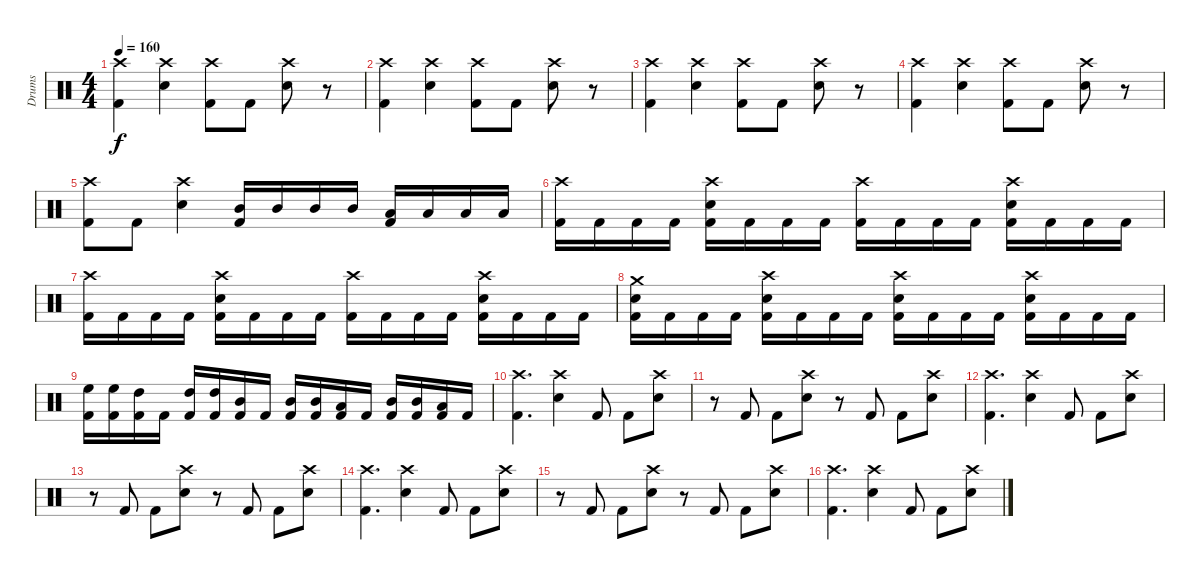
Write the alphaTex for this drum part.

\track ("Drums" "Drums") {instrument percussion}
\staff {score}
\articulation defaults
\ts (4 4)
\tempo 160
\clef neutral
\ks c
("Crash high (hit)" "Kick (hit) 2").4{dy f} ("Crash high (hit)" "Electric Snare (hit)").4 ("Crash high (hit)" "Kick (hit) 2").8 "Kick (hit) 2".8 ("Crash high (hit)" "Electric Snare (hit)").8 r.8 |
("Crash high (hit)" "Kick (hit) 2").4 ("Crash high (hit)" "Electric Snare (hit)").4 ("Crash high (hit)" "Kick (hit) 2").8 "Kick (hit) 2".8 ("Crash high (hit)" "Electric Snare (hit)").8 r.8 |
("Crash high (hit)" "Kick (hit) 2").4 ("Crash high (hit)" "Electric Snare (hit)").4 ("Crash high (hit)" "Kick (hit) 2").8 "Kick (hit) 2".8 ("Crash high (hit)" "Electric Snare (hit)").8 r.8 |
("Crash high (hit)" "Kick (hit) 2").4 ("Crash high (hit)" "Electric Snare (hit)").4 ("Crash high (hit)" "Kick (hit) 2").8 "Kick (hit) 2".8 ("Crash high (hit)" "Electric Snare (hit)").8 r.8 |
("Crash high (hit)" "Kick (hit) 2").8 "Kick (hit) 2".8 ("Crash high (hit)" "Electric Snare (hit)").4 ("Mid Tom (hit)" "Kick (hit) 2").16 "Mid Tom (hit)".16 "Mid Tom (hit)".16 "Mid Tom (hit)".16 ("Low Tom (hit)" "Kick (hit) 2").16 "Low Tom (hit)".16 "Low Tom (hit)".16 "Low Tom (hit)".16 |
("Crash high (hit)" "Kick (hit) 2").16 "Kick (hit) 2".16 "Kick (hit) 2".16 "Kick (hit) 2".16 ("Crash high (hit)" "Electric Snare (hit)" "Kick (hit) 2").16 "Kick (hit) 2".16 "Kick (hit) 2".16 "Kick (hit) 2".16 ("Crash high (hit)" "Kick (hit) 2").16 "Kick (hit) 2".16 "Kick (hit) 2".16 "Kick (hit) 2".16 ("Crash high (hit)" "Electric Snare (hit)" "Kick (hit) 2").16 "Kick (hit) 2".16 "Kick (hit) 2".16 "Kick (hit) 2".16 |
("Crash high (hit)" "Kick (hit) 2").16 "Kick (hit) 2".16 "Kick (hit) 2".16 "Kick (hit) 2".16 ("Crash high (hit)" "Electric Snare (hit)" "Kick (hit) 2").16 "Kick (hit) 2".16 "Kick (hit) 2".16 "Kick (hit) 2".16 ("Crash high (hit)" "Kick (hit) 2").16 "Kick (hit) 2".16 "Kick (hit) 2".16 "Kick (hit) 2".16 ("Crash high (hit)" "Electric Snare (hit)" "Kick (hit) 2").16 "Kick (hit) 2".16 "Kick (hit) 2".16 "Kick (hit) 2".16 |
("Crash medium (hit)" "Electric Snare (hit)" "Kick (hit) 2").16 "Kick (hit) 2".16 "Kick (hit) 2".16 "Kick (hit) 2".16 ("Crash high (hit)" "Electric Snare (hit)" "Kick (hit) 2").16 "Kick (hit) 2".16 "Kick (hit) 2".16 "Kick (hit) 2".16 ("Crash high (hit)" "Electric Snare (hit)" "Kick (hit) 2").16 "Kick (hit) 2".16 "Kick (hit) 2".16 "Kick (hit) 2".16 ("Crash high (hit)" "Electric Snare (hit)" "Kick (hit) 2").16 "Kick (hit) 2".16 "Kick (hit) 2".16 "Kick (hit) 2".16 |
("High Floor Tom (hit)" "Kick (hit) 2").16 ("High Floor Tom (hit)" "Kick (hit) 2").16 ("High Tom (hit)" "Kick (hit) 2").16 "Kick (hit) 2".16 ("High Tom (hit)" "Kick (hit) 2").16 ("High Tom (hit)" "Kick (hit) 2").16 ("Mid Tom (hit)" "Kick (hit) 2").16 "Kick (hit) 2".16 ("Mid Tom (hit)" "Kick (hit) 2").16 ("Mid Tom (hit)" "Kick (hit) 2").16 ("Low Tom (hit)" "Kick (hit) 2").16 "Kick (hit) 2".16 ("Mid Tom (hit)" "Kick (hit) 2").16 ("Mid Tom (hit)" "Kick (hit) 2").16 ("Low Tom (hit)" "Kick (hit) 2").16 "Kick (hit) 2".16 |
("Crash high (hit)" "Kick (hit) 2").4{d} ("Crash high (hit)" "Electric Snare (hit)").4 "Kick (hit) 2".8 "Kick (hit) 2".8 ("Crash high (hit)" "Electric Snare (hit)").8 |
r.8 "Kick (hit) 2".8 "Kick (hit) 2".8 ("Crash high (hit)" "Electric Snare (hit)").8 r.8 "Kick (hit) 2".8 "Kick (hit) 2".8 ("Crash high (hit)" "Electric Snare (hit)").8 |
("Crash high (hit)" "Kick (hit) 2").4{d} ("Crash high (hit)" "Electric Snare (hit)").4 "Kick (hit) 2".8 "Kick (hit) 2".8 ("Crash high (hit)" "Electric Snare (hit)").8 |
r.8 "Kick (hit) 2".8 "Kick (hit) 2".8 ("Crash high (hit)" "Electric Snare (hit)").8 r.8 "Kick (hit) 2".8 "Kick (hit) 2".8 ("Crash high (hit)" "Electric Snare (hit)").8 |
("Crash high (hit)" "Kick (hit) 2").4{d} ("Crash high (hit)" "Electric Snare (hit)").4 "Kick (hit) 2".8 "Kick (hit) 2".8 ("Crash high (hit)" "Electric Snare (hit)").8 |
r.8 "Kick (hit) 2".8 "Kick (hit) 2".8 ("Crash high (hit)" "Electric Snare (hit)").8 r.8 "Kick (hit) 2".8 "Kick (hit) 2".8 ("Crash high (hit)" "Electric Snare (hit)").8 |
("Crash high (hit)" "Kick (hit) 2").4{d} ("Crash high (hit)" "Electric Snare (hit)").4 "Kick (hit) 2".8 "Kick (hit) 2".8 ("Crash high (hit)" "Electric Snare (hit)").8
